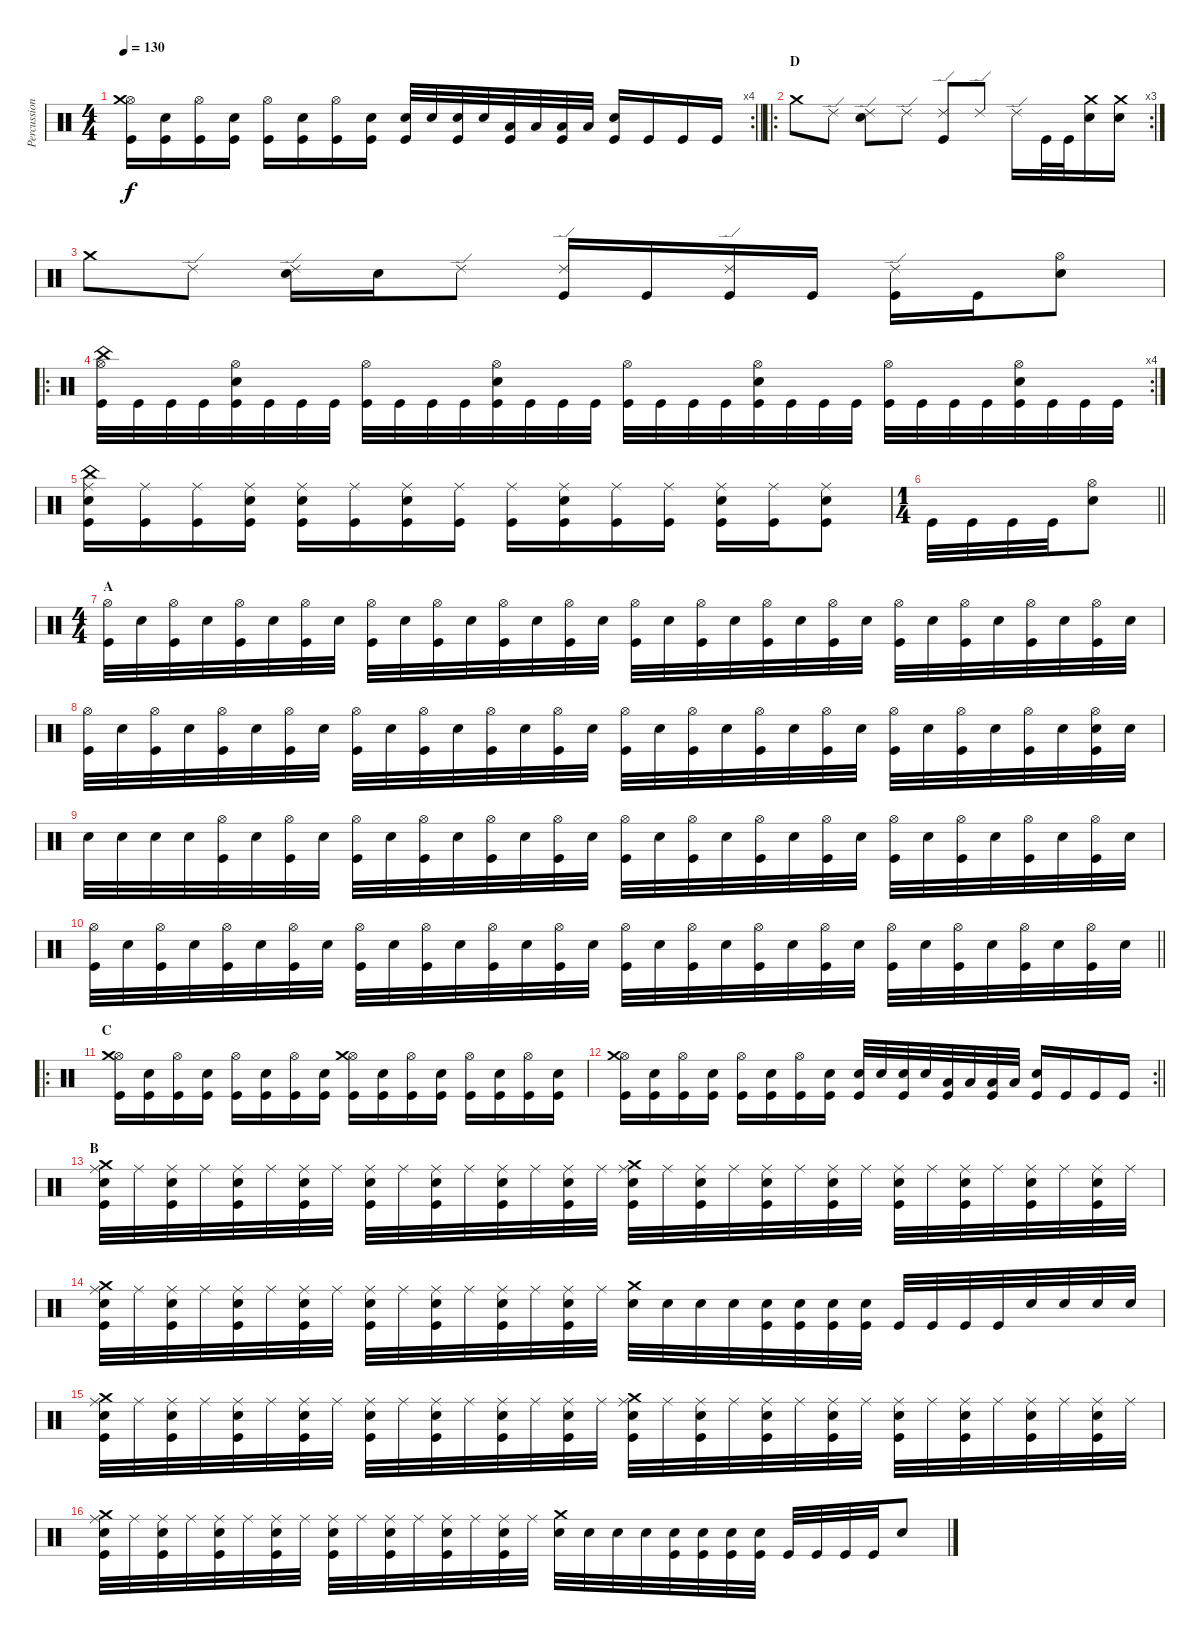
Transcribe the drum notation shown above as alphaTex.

\track ("Percussion" "Percussion") {instrument percussion}
\staff {score}
\articulation defaults
\rc 4
\ts (4 4)
\tempo 130
\clef neutral
\barLineRight lightlight
\ks c
("Kick (hit)" "Hi-Hat (open)" "Crash medium (hit)").16{dy f} ("Kick (hit)" "Electric Snare (hit)").16 ("Kick (hit)" "Hi-Hat (open)").16 ("Kick (hit)" "Electric Snare (hit)").16 ("Kick (hit)" "Hi-Hat (open)").16 ("Kick (hit)" "Electric Snare (hit)").16 ("Kick (hit)" "Hi-Hat (open)").16 ("Kick (hit)" "Electric Snare (hit)").16 ("Kick (hit)" "Electric Snare (hit)").32 "Electric Snare (hit)".32 ("Kick (hit)" "Electric Snare (hit)").32 "Electric Snare (hit)".32 ("Kick (hit)" "Low Floor Tom (hit)").32 "Low Floor Tom (hit)".32 ("Kick (hit)" "Low Floor Tom (hit)").32 "Low Floor Tom (hit)".32 ("Kick (hit)" "Electric Snare (hit)").16 "Kick (hit)".16 "Kick (hit)".16 "Kick (hit)".16 |
\ro
\rc 3
\section ("" "D")
"Crash medium (hit)".8 "Ride (edge) 2".8 ("Electric Snare (hit)" "Ride (edge) 2").8 "Ride (edge) 2".8 ("Kick (hit)" "Ride (edge) 2").8 "Ride (edge) 2".8 "Ride (edge) 2".16 "Kick (hit)".32 "Kick (hit)".32 ("Electric Snare (hit)" "Crash medium (hit)").16 ("Electric Snare (hit)" "Crash medium (hit)").16 |
"Crash medium (hit)".8 "Ride (edge) 2".8 ("Electric Snare (hit)" "Ride (edge) 2").16 "Electric Snare (hit)".16 "Ride (edge) 2".8 ("Kick (hit)" "Ride (edge) 2").16 "Kick (hit)".16 ("Kick (hit)" "Ride (edge) 2").16 "Kick (hit)".16 ("Kick (hit)" "Ride (edge) 2").16 "Kick (hit)".16 ("Electric Snare (hit)" "Hi-Hat (open)").8 |
\ro
\rc 4
("Kick (hit)" "Hi-Hat (open)" "China (hit)").32 "Kick (hit)".32 "Kick (hit)".32 "Kick (hit)".32 ("Kick (hit)" "Hi-Hat (open)" "Electric Snare (hit)").32 "Kick (hit)".32 "Kick (hit)".32 "Kick (hit)".32 ("Kick (hit)" "Hi-Hat (open)").32 "Kick (hit)".32 "Kick (hit)".32 "Kick (hit)".32 ("Kick (hit)" "Hi-Hat (open)" "Electric Snare (hit)").32 "Kick (hit)".32 "Kick (hit)".32 "Kick (hit)".32 ("Kick (hit)" "Hi-Hat (open)").32 "Kick (hit)".32 "Kick (hit)".32 "Kick (hit)".32 ("Kick (hit)" "Hi-Hat (open)" "Electric Snare (hit)").32 "Kick (hit)".32 "Kick (hit)".32 "Kick (hit)".32 ("Kick (hit)" "Hi-Hat (open)").32 "Kick (hit)".32 "Kick (hit)".32 "Kick (hit)".32 ("Kick (hit)" "Hi-Hat (open)" "Electric Snare (hit)").32 "Kick (hit)".32 "Kick (hit)".32 "Kick (hit)".32 |
("Kick (hit)" "Electric Snare (hit)" "Ride (middle)" "China (hit)").16 ("Kick (hit)" "Ride (middle)").16 ("Kick (hit)" "Ride (middle)").16 ("Kick (hit)" "Electric Snare (hit)" "Ride (middle)").16 ("Kick (hit)" "Electric Snare (hit)" "Ride (middle)").16 ("Kick (hit)" "Ride (middle)").16 ("Kick (hit)" "Electric Snare (hit)" "Ride (middle)").16 ("Kick (hit)" "Ride (middle)").16 ("Kick (hit)" "Ride (middle)").16 ("Kick (hit)" "Electric Snare (hit)" "Ride (middle)").16 ("Kick (hit)" "Ride (middle)").16 ("Kick (hit)" "Ride (middle)").16 ("Kick (hit)" "Electric Snare (hit)" "Ride (middle)").16 ("Kick (hit)" "Ride (middle)").16 ("Kick (hit)" "Electric Snare (hit)" "Ride (middle)").8 |
\ts (1 4)
\barLineRight lightlight "Kick (hit)".32 "Kick (hit)".32 "Kick (hit)".32 "Kick (hit)".32
("Hi-Hat (open)" "Electric Snare (hit)").8 |
\ts (4 4)
\section ("" "A")
("Kick (hit)" "Hi-Hat (open)").32 "Electric Snare (hit)".32 ("Kick (hit)" "Hi-Hat (open)").32 "Electric Snare (hit)".32 ("Kick (hit)" "Hi-Hat (open)").32 "Electric Snare (hit)".32 ("Kick (hit)" "Hi-Hat (open)").32 "Electric Snare (hit)".32 ("Kick (hit)" "Hi-Hat (open)").32 "Electric Snare (hit)".32 ("Kick (hit)" "Hi-Hat (open)").32 "Electric Snare (hit)".32 ("Kick (hit)" "Hi-Hat (open)").32 "Electric Snare (hit)".32 ("Kick (hit)" "Hi-Hat (open)").32 "Electric Snare (hit)".32 ("Kick (hit)" "Hi-Hat (open)").32 "Electric Snare (hit)".32 ("Kick (hit)" "Hi-Hat (open)").32 "Electric Snare (hit)".32 ("Kick (hit)" "Hi-Hat (open)").32 "Electric Snare (hit)".32 ("Kick (hit)" "Hi-Hat (open)").32 "Electric Snare (hit)".32 ("Kick (hit)" "Hi-Hat (open)").32 "Electric Snare (hit)".32 ("Kick (hit)" "Hi-Hat (open)").32 "Electric Snare (hit)".32 ("Kick (hit)" "Hi-Hat (open)").32 "Electric Snare (hit)".32 ("Kick (hit)" "Hi-Hat (open)").32 "Electric Snare (hit)".32 |
("Kick (hit)" "Hi-Hat (open)").32 "Electric Snare (hit)".32 ("Kick (hit)" "Hi-Hat (open)").32 "Electric Snare (hit)".32 ("Kick (hit)" "Hi-Hat (open)").32 "Electric Snare (hit)".32 ("Kick (hit)" "Hi-Hat (open)").32 "Electric Snare (hit)".32 ("Kick (hit)" "Hi-Hat (open)").32 "Electric Snare (hit)".32 ("Kick (hit)" "Hi-Hat (open)").32 "Electric Snare (hit)".32 ("Kick (hit)" "Hi-Hat (open)").32 "Electric Snare (hit)".32 ("Kick (hit)" "Hi-Hat (open)").32 "Electric Snare (hit)".32 ("Kick (hit)" "Hi-Hat (open)").32 "Electric Snare (hit)".32 ("Kick (hit)" "Hi-Hat (open)").32 "Electric Snare (hit)".32 ("Kick (hit)" "Hi-Hat (open)").32 "Electric Snare (hit)".32 ("Kick (hit)" "Hi-Hat (open)").32 "Electric Snare (hit)".32 ("Kick (hit)" "Hi-Hat (open)").32 "Electric Snare (hit)".32 ("Kick (hit)" "Hi-Hat (open)").32 "Electric Snare (hit)".32 ("Kick (hit)" "Hi-Hat (open)").32 "Electric Snare (hit)".32 ("Kick (hit)" "Electric Snare (hit)" "Hi-Hat (open)").32 "Electric Snare (hit)".32 |
"Electric Snare (hit)".32 "Electric Snare (hit)".32 "Electric Snare (hit)".32 "Electric Snare (hit)".32 ("Kick (hit)" "Hi-Hat (open)").32 "Electric Snare (hit)".32 ("Kick (hit)" "Hi-Hat (open)").32 "Electric Snare (hit)".32 ("Kick (hit)" "Hi-Hat (open)").32 "Electric Snare (hit)".32 ("Kick (hit)" "Hi-Hat (open)").32 "Electric Snare (hit)".32 ("Kick (hit)" "Hi-Hat (open)").32 "Electric Snare (hit)".32 ("Kick (hit)" "Hi-Hat (open)").32 "Electric Snare (hit)".32 ("Kick (hit)" "Hi-Hat (open)").32 "Electric Snare (hit)".32 ("Kick (hit)" "Hi-Hat (open)").32 "Electric Snare (hit)".32 ("Kick (hit)" "Hi-Hat (open)").32 "Electric Snare (hit)".32 ("Kick (hit)" "Hi-Hat (open)").32 "Electric Snare (hit)".32 ("Kick (hit)" "Hi-Hat (open)").32 "Electric Snare (hit)".32 ("Kick (hit)" "Hi-Hat (open)").32 "Electric Snare (hit)".32 ("Kick (hit)" "Hi-Hat (open)").32 "Electric Snare (hit)".32 ("Kick (hit)" "Hi-Hat (open)").32 "Electric Snare (hit)".32 |
\barLineRight lightlight
("Kick (hit)" "Hi-Hat (open)").32 "Electric Snare (hit)".32 ("Kick (hit)" "Hi-Hat (open)").32 "Electric Snare (hit)".32 ("Kick (hit)" "Hi-Hat (open)").32 "Electric Snare (hit)".32 ("Kick (hit)" "Hi-Hat (open)").32 "Electric Snare (hit)".32 ("Kick (hit)" "Hi-Hat (open)").32 "Electric Snare (hit)".32 ("Kick (hit)" "Hi-Hat (open)").32 "Electric Snare (hit)".32 ("Kick (hit)" "Hi-Hat (open)").32 "Electric Snare (hit)".32 ("Kick (hit)" "Hi-Hat (open)").32 "Electric Snare (hit)".32 ("Kick (hit)" "Hi-Hat (open)").32 "Electric Snare (hit)".32 ("Kick (hit)" "Hi-Hat (open)").32 "Electric Snare (hit)".32 ("Kick (hit)" "Hi-Hat (open)").32 "Electric Snare (hit)".32 ("Kick (hit)" "Hi-Hat (open)").32 "Electric Snare (hit)".32 ("Kick (hit)" "Hi-Hat (open)").32 "Electric Snare (hit)".32 ("Kick (hit)" "Hi-Hat (open)").32 "Electric Snare (hit)".32 ("Kick (hit)" "Hi-Hat (open)").32 "Electric Snare (hit)".32 ("Kick (hit)" "Hi-Hat (open)").32 "Electric Snare (hit)".32 |
\ro
\section ("" "C")
("Kick (hit)" "Hi-Hat (open)" "Crash medium (hit)").16 ("Kick (hit)" "Electric Snare (hit)").16 ("Kick (hit)" "Hi-Hat (open)").16 ("Kick (hit)" "Electric Snare (hit)").16 ("Kick (hit)" "Hi-Hat (open)").16 ("Kick (hit)" "Electric Snare (hit)").16 ("Kick (hit)" "Hi-Hat (open)").16 ("Kick (hit)" "Electric Snare (hit)").16 ("Kick (hit)" "Hi-Hat (open)" "Crash medium (hit)").16 ("Kick (hit)" "Electric Snare (hit)").16 ("Kick (hit)" "Hi-Hat (open)").16 ("Kick (hit)" "Electric Snare (hit)").16 ("Kick (hit)" "Hi-Hat (open)").16 ("Kick (hit)" "Electric Snare (hit)").16 ("Kick (hit)" "Hi-Hat (open)").16 ("Kick (hit)" "Electric Snare (hit)").16 |
\rc 2
\barLineRight lightlight
("Kick (hit)" "Hi-Hat (open)" "Crash medium (hit)").16 ("Kick (hit)" "Electric Snare (hit)").16 ("Kick (hit)" "Hi-Hat (open)").16 ("Kick (hit)" "Electric Snare (hit)").16 ("Kick (hit)" "Hi-Hat (open)").16 ("Kick (hit)" "Electric Snare (hit)").16 ("Kick (hit)" "Hi-Hat (open)").16 ("Kick (hit)" "Electric Snare (hit)").16 ("Kick (hit)" "Electric Snare (hit)").32 "Electric Snare (hit)".32 ("Kick (hit)" "Electric Snare (hit)").32 "Electric Snare (hit)".32 ("Kick (hit)" "Low Floor Tom (hit)").32 "Low Floor Tom (hit)".32 ("Kick (hit)" "Low Floor Tom (hit)").32 "Low Floor Tom (hit)".32 ("Kick (hit)" "Electric Snare (hit)").16 "Kick (hit)".16 "Kick (hit)".16 "Kick (hit)".16 |
\section ("" "B")
("Electric Snare (hit)" "Crash medium (hit)" "Ride (middle)" "Kick (hit)").32 "Ride (middle)".32 ("Electric Snare (hit)" "Ride (middle)" "Kick (hit)").32 "Ride (middle)".32 ("Electric Snare (hit)" "Ride (middle)" "Kick (hit)").32 "Ride (middle)".32 ("Electric Snare (hit)" "Ride (middle)" "Kick (hit)").32 "Ride (middle)".32 ("Electric Snare (hit)" "Ride (middle)" "Kick (hit)").32 "Ride (middle)".32 ("Electric Snare (hit)" "Ride (middle)" "Kick (hit)").32 "Ride (middle)".32 ("Electric Snare (hit)" "Ride (middle)" "Kick (hit)").32 "Ride (middle)".32 ("Electric Snare (hit)" "Ride (middle)" "Kick (hit)").32 "Ride (middle)".32 ("Electric Snare (hit)" "Crash medium (hit)" "Ride (middle)" "Kick (hit)").32 "Ride (middle)".32 ("Electric Snare (hit)" "Ride (middle)" "Kick (hit)").32 "Ride (middle)".32 ("Electric Snare (hit)" "Ride (middle)" "Kick (hit)").32 "Ride (middle)".32 ("Electric Snare (hit)" "Ride (middle)" "Kick (hit)").32 "Ride (middle)".32 ("Electric Snare (hit)" "Ride (middle)" "Kick (hit)").32 "Ride (middle)".32 ("Electric Snare (hit)" "Ride (middle)" "Kick (hit)").32 "Ride (middle)".32 ("Electric Snare (hit)" "Ride (middle)" "Kick (hit)").32 "Ride (middle)".32 ("Electric Snare (hit)" "Ride (middle)" "Kick (hit)").32 "Ride (middle)".32 |
("Electric Snare (hit)" "Crash medium (hit)" "Ride (middle)" "Kick (hit)").32 "Ride (middle)".32 ("Electric Snare (hit)" "Ride (middle)" "Kick (hit)").32 "Ride (middle)".32 ("Electric Snare (hit)" "Ride (middle)" "Kick (hit)").32 "Ride (middle)".32 ("Electric Snare (hit)" "Ride (middle)" "Kick (hit)").32 "Ride (middle)".32 ("Electric Snare (hit)" "Ride (middle)" "Kick (hit)").32 "Ride (middle)".32 ("Electric Snare (hit)" "Ride (middle)" "Kick (hit)").32 "Ride (middle)".32 ("Electric Snare (hit)" "Ride (middle)" "Kick (hit)").32 "Ride (middle)".32 ("Electric Snare (hit)" "Ride (middle)" "Kick (hit)").32 "Ride (middle)".32 ("Electric Snare (hit)" "Crash medium (hit)").32 "Electric Snare (hit)".32 "Electric Snare (hit)".32 "Electric Snare (hit)".32 ("Electric Snare (hit)" "Kick (hit)").32 ("Electric Snare (hit)" "Kick (hit)").32 ("Electric Snare (hit)" "Kick (hit)").32 ("Electric Snare (hit)" "Kick (hit)").32 "Kick (hit)".32 "Kick (hit)".32 "Kick (hit)".32 "Kick (hit)".32 "Electric Snare (hit)".32 "Electric Snare (hit)".32 "Electric Snare (hit)".32 "Electric Snare (hit)".32 |
("Electric Snare (hit)" "Crash medium (hit)" "Ride (middle)" "Kick (hit)").32 "Ride (middle)".32 ("Electric Snare (hit)" "Ride (middle)" "Kick (hit)").32 "Ride (middle)".32 ("Electric Snare (hit)" "Ride (middle)" "Kick (hit)").32 "Ride (middle)".32 ("Electric Snare (hit)" "Ride (middle)" "Kick (hit)").32 "Ride (middle)".32 ("Electric Snare (hit)" "Ride (middle)" "Kick (hit)").32 "Ride (middle)".32 ("Electric Snare (hit)" "Ride (middle)" "Kick (hit)").32 "Ride (middle)".32 ("Electric Snare (hit)" "Ride (middle)" "Kick (hit)").32 "Ride (middle)".32 ("Electric Snare (hit)" "Ride (middle)" "Kick (hit)").32 "Ride (middle)".32 ("Electric Snare (hit)" "Crash medium (hit)" "Ride (middle)" "Kick (hit)").32 "Ride (middle)".32 ("Electric Snare (hit)" "Ride (middle)" "Kick (hit)").32 "Ride (middle)".32 ("Electric Snare (hit)" "Ride (middle)" "Kick (hit)").32 "Ride (middle)".32 ("Electric Snare (hit)" "Ride (middle)" "Kick (hit)").32 "Ride (middle)".32 ("Electric Snare (hit)" "Ride (middle)" "Kick (hit)").32 "Ride (middle)".32 ("Electric Snare (hit)" "Ride (middle)" "Kick (hit)").32 "Ride (middle)".32 ("Electric Snare (hit)" "Ride (middle)" "Kick (hit)").32 "Ride (middle)".32 ("Electric Snare (hit)" "Ride (middle)" "Kick (hit)").32 "Ride (middle)".32 |
("Electric Snare (hit)" "Crash medium (hit)" "Ride (middle)" "Kick (hit)").32 "Ride (middle)".32 ("Electric Snare (hit)" "Ride (middle)" "Kick (hit)").32 "Ride (middle)".32 ("Electric Snare (hit)" "Ride (middle)" "Kick (hit)").32 "Ride (middle)".32 ("Electric Snare (hit)" "Ride (middle)" "Kick (hit)").32 "Ride (middle)".32 ("Electric Snare (hit)" "Ride (middle)" "Kick (hit)").32 "Ride (middle)".32 ("Electric Snare (hit)" "Ride (middle)" "Kick (hit)").32 "Ride (middle)".32 ("Electric Snare (hit)" "Ride (middle)" "Kick (hit)").32 "Ride (middle)".32 ("Electric Snare (hit)" "Ride (middle)" "Kick (hit)").32 "Ride (middle)".32 ("Electric Snare (hit)" "Crash medium (hit)").32 "Electric Snare (hit)".32 "Electric Snare (hit)".32 "Electric Snare (hit)".32 ("Electric Snare (hit)" "Kick (hit)").32 ("Electric Snare (hit)" "Kick (hit)").32 ("Electric Snare (hit)" "Kick (hit)").32 ("Electric Snare (hit)" "Kick (hit)").32 "Kick (hit)".32 "Kick (hit)".32 "Kick (hit)".32 "Kick (hit)".32 "Electric Snare (hit)".8
